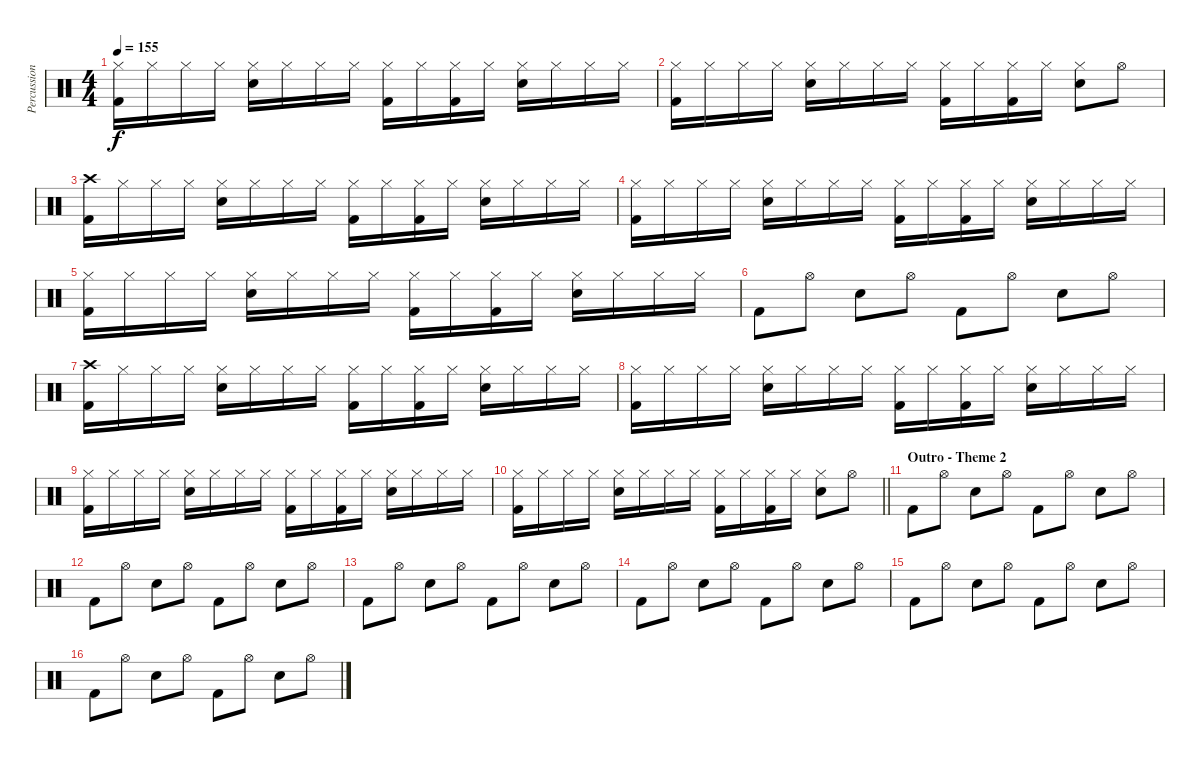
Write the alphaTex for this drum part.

\track ("Percussioni" "Percussion") {instrument percussion}
\staff {score}
\articulation defaults
\ts (4 4)
\tempo 155
\clef neutral
\ks c
("Hi-Hat (closed)" "Kick (hit) 2").16{dy f} "Hi-Hat (closed)".16 "Hi-Hat (closed)".16 "Hi-Hat (closed)".16 ("Hi-Hat (closed)" "Snare (hit) 2").16 "Hi-Hat (closed)".16 "Hi-Hat (closed)".16 "Hi-Hat (closed)".16 ("Hi-Hat (closed)" "Kick (hit) 2").16 "Hi-Hat (closed)".16 ("Hi-Hat (closed)" "Kick (hit) 2").16 "Hi-Hat (closed)".16 ("Hi-Hat (closed)" "Snare (hit) 2").16 "Hi-Hat (closed)".16 "Hi-Hat (closed)".16 "Hi-Hat (closed)".16 |
("Hi-Hat (closed)" "Kick (hit) 2").16 "Hi-Hat (closed)".16 "Hi-Hat (closed)".16 "Hi-Hat (closed)".16 ("Hi-Hat (closed)" "Snare (hit) 2").16 "Hi-Hat (closed)".16 "Hi-Hat (closed)".16 "Hi-Hat (closed)".16 ("Hi-Hat (closed)" "Kick (hit) 2").16 "Hi-Hat (closed)".16 ("Hi-Hat (closed)" "Kick (hit) 2").16 "Hi-Hat (closed)".16 ("Hi-Hat (closed)" "Snare (hit) 2").8 "Hi-Hat (open)".8 |
("Crash high (hit)" "Kick (hit) 2").16 "Hi-Hat (closed)".16 "Hi-Hat (closed)".16 "Hi-Hat (closed)".16 ("Hi-Hat (closed)" "Snare (hit) 2").16 "Hi-Hat (closed)".16 "Hi-Hat (closed)".16 "Hi-Hat (closed)".16 ("Hi-Hat (closed)" "Kick (hit) 2").16 "Hi-Hat (closed)".16 ("Hi-Hat (closed)" "Kick (hit) 2").16 "Hi-Hat (closed)".16 ("Hi-Hat (closed)" "Snare (hit) 2").16 "Hi-Hat (closed)".16 "Hi-Hat (closed)".16 "Hi-Hat (closed)".16 |
("Hi-Hat (closed)" "Kick (hit) 2").16 "Hi-Hat (closed)".16 "Hi-Hat (closed)".16 "Hi-Hat (closed)".16 ("Hi-Hat (closed)" "Snare (hit) 2").16 "Hi-Hat (closed)".16 "Hi-Hat (closed)".16 "Hi-Hat (closed)".16 ("Hi-Hat (closed)" "Kick (hit) 2").16 "Hi-Hat (closed)".16 ("Hi-Hat (closed)" "Kick (hit) 2").16 "Hi-Hat (closed)".16 ("Hi-Hat (closed)" "Snare (hit) 2").16 "Hi-Hat (closed)".16 "Hi-Hat (closed)".16 "Hi-Hat (closed)".16 |
("Hi-Hat (closed)" "Kick (hit) 2").16 "Hi-Hat (closed)".16 "Hi-Hat (closed)".16 "Hi-Hat (closed)".16 ("Hi-Hat (closed)" "Snare (hit) 2").16 "Hi-Hat (closed)".16 "Hi-Hat (closed)".16 "Hi-Hat (closed)".16 ("Hi-Hat (closed)" "Kick (hit) 2").16 "Hi-Hat (closed)".16 ("Hi-Hat (closed)" "Kick (hit) 2").16 "Hi-Hat (closed)".16 ("Hi-Hat (closed)" "Snare (hit) 2").16 "Hi-Hat (closed)".16 "Hi-Hat (closed)".16 "Hi-Hat (closed)".16 |
"Kick (hit) 2".8 "Hi-Hat (open)".8 "Snare (hit) 2".8 "Hi-Hat (open)".8 "Kick (hit) 2".8 "Hi-Hat (open)".8 "Snare (hit) 2".8 "Hi-Hat (open)".8 |
("Crash high (hit)" "Kick (hit) 2").16 "Hi-Hat (closed)".16 "Hi-Hat (closed)".16 "Hi-Hat (closed)".16 ("Hi-Hat (closed)" "Snare (hit) 2").16 "Hi-Hat (closed)".16 "Hi-Hat (closed)".16 "Hi-Hat (closed)".16 ("Hi-Hat (closed)" "Kick (hit) 2").16 "Hi-Hat (closed)".16 ("Hi-Hat (closed)" "Kick (hit) 2").16 "Hi-Hat (closed)".16 ("Hi-Hat (closed)" "Snare (hit) 2").16 "Hi-Hat (closed)".16 "Hi-Hat (closed)".16 "Hi-Hat (closed)".16 |
("Hi-Hat (closed)" "Kick (hit) 2").16 "Hi-Hat (closed)".16 "Hi-Hat (closed)".16 "Hi-Hat (closed)".16 ("Hi-Hat (closed)" "Snare (hit) 2").16 "Hi-Hat (closed)".16 "Hi-Hat (closed)".16 "Hi-Hat (closed)".16 ("Hi-Hat (closed)" "Kick (hit) 2").16 "Hi-Hat (closed)".16 ("Hi-Hat (closed)" "Kick (hit) 2").16 "Hi-Hat (closed)".16 ("Hi-Hat (closed)" "Snare (hit) 2").16 "Hi-Hat (closed)".16 "Hi-Hat (closed)".16 "Hi-Hat (closed)".16 |
("Hi-Hat (closed)" "Kick (hit) 2").16 "Hi-Hat (closed)".16 "Hi-Hat (closed)".16 "Hi-Hat (closed)".16 ("Hi-Hat (closed)" "Snare (hit) 2").16 "Hi-Hat (closed)".16 "Hi-Hat (closed)".16 "Hi-Hat (closed)".16 ("Hi-Hat (closed)" "Kick (hit) 2").16 "Hi-Hat (closed)".16 ("Hi-Hat (closed)" "Kick (hit) 2").16 "Hi-Hat (closed)".16 ("Hi-Hat (closed)" "Snare (hit) 2").16 "Hi-Hat (closed)".16 "Hi-Hat (closed)".16 "Hi-Hat (closed)".16 |
\barLineRight lightlight
("Hi-Hat (closed)" "Kick (hit) 2").16 "Hi-Hat (closed)".16 "Hi-Hat (closed)".16 "Hi-Hat (closed)".16 ("Hi-Hat (closed)" "Snare (hit) 2").16 "Hi-Hat (closed)".16 "Hi-Hat (closed)".16 "Hi-Hat (closed)".16 ("Hi-Hat (closed)" "Kick (hit) 2").16 "Hi-Hat (closed)".16 ("Hi-Hat (closed)" "Kick (hit) 2").16 "Hi-Hat (closed)".16 ("Hi-Hat (closed)" "Snare (hit) 2").8 "Hi-Hat (open)".8 |
\section ("" "Outro - Theme 2")
"Kick (hit) 2".8 "Hi-Hat (open)".8 "Snare (hit) 2".8 "Hi-Hat (open)".8 "Kick (hit) 2".8 "Hi-Hat (open)".8 "Snare (hit) 2".8 "Hi-Hat (open)".8 |
"Kick (hit) 2".8 "Hi-Hat (open)".8 "Snare (hit) 2".8 "Hi-Hat (open)".8 "Kick (hit) 2".8 "Hi-Hat (open)".8 "Snare (hit) 2".8 "Hi-Hat (open)".8 |
"Kick (hit) 2".8 "Hi-Hat (open)".8 "Snare (hit) 2".8 "Hi-Hat (open)".8 "Kick (hit) 2".8 "Hi-Hat (open)".8 "Snare (hit) 2".8 "Hi-Hat (open)".8 |
"Kick (hit) 2".8 "Hi-Hat (open)".8 "Snare (hit) 2".8 "Hi-Hat (open)".8 "Kick (hit) 2".8 "Hi-Hat (open)".8 "Snare (hit) 2".8 "Hi-Hat (open)".8 |
"Kick (hit) 2".8 "Hi-Hat (open)".8 "Snare (hit) 2".8 "Hi-Hat (open)".8 "Kick (hit) 2".8 "Hi-Hat (open)".8 "Snare (hit) 2".8 "Hi-Hat (open)".8 |
"Kick (hit) 2".8 "Hi-Hat (open)".8 "Snare (hit) 2".8 "Hi-Hat (open)".8 "Kick (hit) 2".8 "Hi-Hat (open)".8 "Snare (hit) 2".8 "Hi-Hat (open)".8
